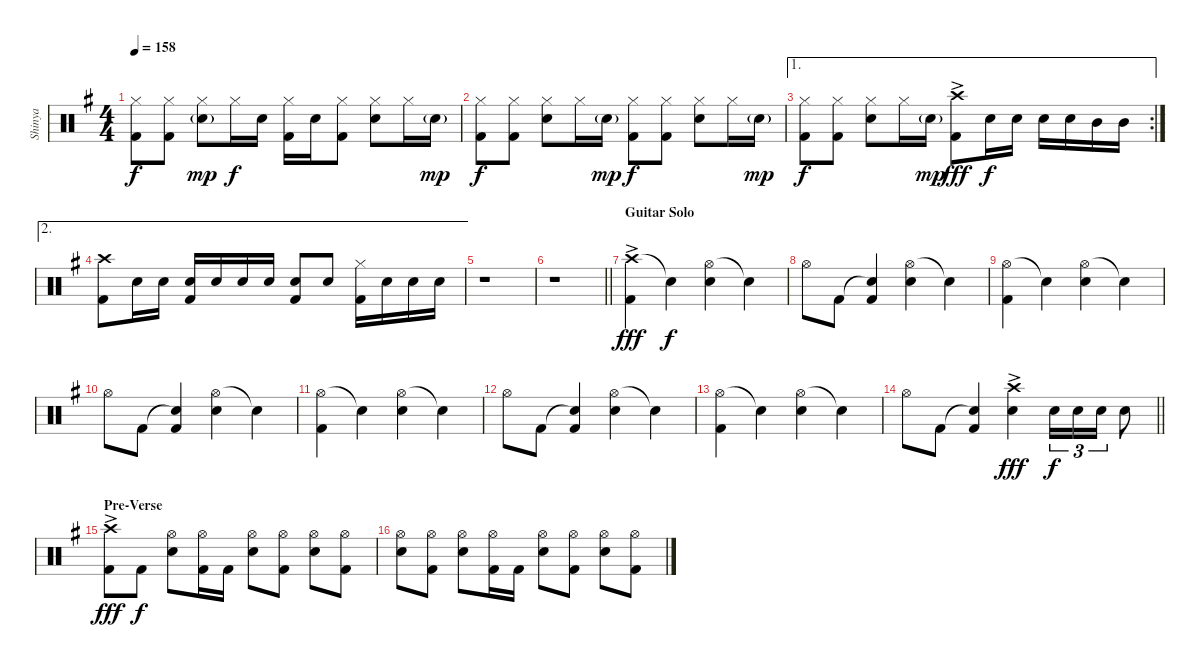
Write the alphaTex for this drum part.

\track ("Shinya" "Shinya") {instrument percussion}
\staff {score}
\articulation defaults
\ts (4 4)
\tempo 158
\clef neutral
\ks g
("Hi-Hat (closed)" "Kick (hit) 2").8{dy f} ("Hi-Hat (closed)" "Kick (hit) 2").8 ("Hi-Hat (closed)" "Snare (hit) 2"{g}).8{dy mp} "Hi-Hat (closed)".16{dy f} "Snare (hit) 2".16 ("Hi-Hat (closed)" "Kick (hit) 2").16 "Snare (hit) 2".16 ("Hi-Hat (closed)" "Kick (hit) 2").8 ("Hi-Hat (closed)" "Snare (hit) 2").8 "Hi-Hat (closed)".16 "Snare (hit) 2"{g}.16{dy mp} |
("Hi-Hat (closed)" "Kick (hit) 2").8{dy f} ("Hi-Hat (closed)" "Kick (hit) 2").8 ("Hi-Hat (closed)" "Snare (hit) 2").8 "Hi-Hat (closed)".16 "Snare (hit) 2"{g}.16{dy mp} ("Hi-Hat (closed)" "Kick (hit) 2").8{dy f} ("Hi-Hat (closed)" "Kick (hit) 2").8 ("Hi-Hat (closed)" "Snare (hit) 2").8 "Hi-Hat (closed)".16 "Snare (hit) 2"{g}.16{dy mp} |
\ae 1
\rc 2
("Hi-Hat (closed)" "Kick (hit) 2").8{dy f} ("Hi-Hat (closed)" "Kick (hit) 2").8 ("Hi-Hat (closed)" "Snare (hit) 2").8 "Hi-Hat (closed)".16 "Snare (hit) 2"{g}.16{dy mp} ("Crash high (hit)"{ac} "Kick (hit) 2").8{dy fff} "Snare (hit) 2".16{dy f} "Snare (hit) 2".16 "Snare (hit) 2".16 "Snare (hit) 2".16 "Mid Tom (hit)".16 "Mid Tom (hit)".16 |
\ae 2
("Crash high (hit)" "Kick (hit) 2").8 "Snare (hit) 2".16 "Snare (hit) 2".16 ("Snare (hit) 2" "Kick (hit) 2").16 "Snare (hit) 2".16 "Snare (hit) 2".16 "Snare (hit) 2".16 ("Snare (hit) 2" "Kick (hit) 2").8 "Snare (hit) 2".8 ("Hi-Hat (closed)" "Kick (hit) 2").16 "Snare (hit) 2".16 "Snare (hit) 2".16 "Snare (hit) 2".16 |
r.1 |
\barLineRight lightlight
r.1 |
\section ("" "Guitar Solo")
("Crash high (hit)"{ac} "Kick (hit) 2").4{dy fff} "Snare (hit)"{t}.4{dy f} ("Hi-Hat (open)" "Snare (hit) 2").4 "Snare (hit)"{t}.4 |
"Hi-Hat (open)".8 "Kick (hit) 2".8 ("Snare (hit)"{t} "Kick (hit) 2").4 ("Hi-Hat (open)" "Snare (hit) 2").4 "Snare (hit)"{t}.4 |
("Hi-Hat (open)" "Kick (hit) 2").4 "Snare (hit)"{t}.4 ("Hi-Hat (open)" "Snare (hit) 2").4 "Snare (hit)"{t}.4 |
"Hi-Hat (open)".8 "Kick (hit) 2".8 ("Snare (hit)"{t} "Kick (hit) 2").4 ("Hi-Hat (open)" "Snare (hit) 2").4 "Snare (hit)"{t}.4 |
("Hi-Hat (open)" "Kick (hit) 2").4 "Snare (hit)"{t}.4 ("Hi-Hat (open)" "Snare (hit) 2").4 "Snare (hit)"{t}.4 |
"Hi-Hat (open)".8 "Kick (hit) 2".8 ("Snare (hit)"{t} "Kick (hit) 2").4 ("Hi-Hat (open)" "Snare (hit) 2").4 "Snare (hit)"{t}.4 |
("Hi-Hat (open)" "Kick (hit) 2").4 "Snare (hit)"{t}.4 ("Hi-Hat (open)" "Snare (hit) 2").4 "Snare (hit)"{t}.4 |
\barLineRight lightlight "Hi-Hat (open)".8 "Kick (hit) 2".8
("Snare (hit)"{t} "Kick (hit) 2").4 ("Crash high (hit)"{ac} "Snare (hit) 2").4{dy fff} "Snare (hit) 2".16{tu (3 2) dy f} "Snare (hit) 2".16{tu (3 2)} "Snare (hit) 2".16{tu (3 2)} "Snare (hit) 2".8 |
\section ("" "Pre-Verse")
("Crash high (hit)"{ac} "Kick (hit) 2").8{dy fff} "Kick (hit) 2".8{dy f} ("Hi-Hat (open)" "Snare (hit) 2").8 ("Hi-Hat (open)" "Kick (hit) 2").16 "Kick (hit) 2".16 ("Hi-Hat (open)" "Snare (hit) 2").8 ("Hi-Hat (open)" "Kick (hit) 2").8 ("Hi-Hat (open)" "Snare (hit) 2").8 ("Hi-Hat (open)" "Kick (hit) 2").8 |
("Hi-Hat (open)" "Snare (hit) 2").8 ("Hi-Hat (open)" "Kick (hit) 2").8 ("Hi-Hat (open)" "Snare (hit) 2").8 ("Hi-Hat (open)" "Kick (hit) 2").16 "Kick (hit) 2".16 ("Hi-Hat (open)" "Snare (hit) 2").8 ("Hi-Hat (open)" "Kick (hit) 2").8 ("Hi-Hat (open)" "Snare (hit) 2").8 ("Hi-Hat (open)" "Kick (hit) 2").8
